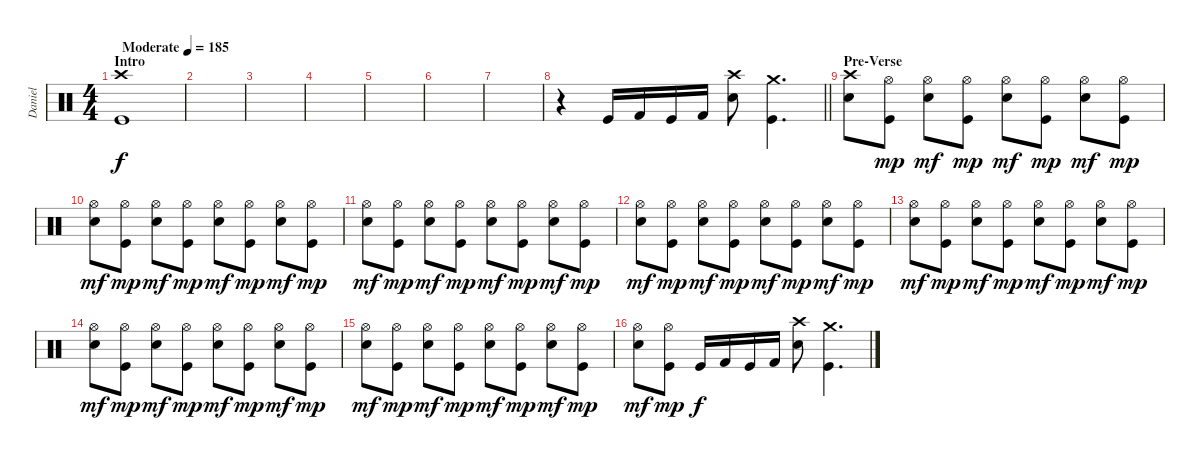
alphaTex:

\track ("Daniel" "Daniel") {instrument percussion}
\staff {score}
\articulation defaults
\ts (4 4)
\section ("" "Intro")
\tempo (185 "Moderate")
\clef neutral
\ks c
("Kick (hit)" "Crash high (hit)").1{dy f} |
|
|
|
|
|
|
\barLineRight lightlight
r.4 "Kick (hit)".16 "Kick (hit) 2".16 "Kick (hit)".16 "Kick (hit) 2".16 ("Electric Snare (hit)" "Crash high (hit)").8 ("Kick (hit)" "Crash medium (hit)").4{d} |
\section ("" "Pre-Verse")
("Electric Snare (hit)" "Crash high (hit)").8 ("Kick (hit)" "Hi-Hat (open)").8{dy mp} ("Electric Snare (hit)" "Hi-Hat (open)").8{dy mf} ("Kick (hit)" "Hi-Hat (open)").8{dy mp} ("Electric Snare (hit)" "Hi-Hat (open)").8{dy mf} ("Kick (hit)" "Hi-Hat (open)").8{dy mp} ("Electric Snare (hit)" "Hi-Hat (open)").8{dy mf} ("Kick (hit)" "Hi-Hat (open)").8{dy mp} |
("Electric Snare (hit)" "Hi-Hat (open)").8{dy mf} ("Kick (hit)" "Hi-Hat (open)").8{dy mp} ("Electric Snare (hit)" "Hi-Hat (open)").8{dy mf} ("Kick (hit)" "Hi-Hat (open)").8{dy mp} ("Electric Snare (hit)" "Hi-Hat (open)").8{dy mf} ("Kick (hit)" "Hi-Hat (open)").8{dy mp} ("Electric Snare (hit)" "Hi-Hat (open)").8{dy mf} ("Kick (hit)" "Hi-Hat (open)").8{dy mp} |
("Electric Snare (hit)" "Hi-Hat (open)").8{dy mf} ("Kick (hit)" "Hi-Hat (open)").8{dy mp} ("Electric Snare (hit)" "Hi-Hat (open)").8{dy mf} ("Kick (hit)" "Hi-Hat (open)").8{dy mp} ("Electric Snare (hit)" "Hi-Hat (open)").8{dy mf} ("Kick (hit)" "Hi-Hat (open)").8{dy mp} ("Electric Snare (hit)" "Hi-Hat (open)").8{dy mf} ("Kick (hit)" "Hi-Hat (open)").8{dy mp} |
("Electric Snare (hit)" "Hi-Hat (open)").8{dy mf} ("Kick (hit)" "Hi-Hat (open)").8{dy mp} ("Electric Snare (hit)" "Hi-Hat (open)").8{dy mf} ("Kick (hit)" "Hi-Hat (open)").8{dy mp} ("Electric Snare (hit)" "Hi-Hat (open)").8{dy mf} ("Kick (hit)" "Hi-Hat (open)").8{dy mp} ("Electric Snare (hit)" "Hi-Hat (open)").8{dy mf} ("Kick (hit)" "Hi-Hat (open)").8{dy mp} |
("Electric Snare (hit)" "Hi-Hat (open)").8{dy mf} ("Kick (hit)" "Hi-Hat (open)").8{dy mp} ("Electric Snare (hit)" "Hi-Hat (open)").8{dy mf} ("Kick (hit)" "Hi-Hat (open)").8{dy mp} ("Electric Snare (hit)" "Hi-Hat (open)").8{dy mf} ("Kick (hit)" "Hi-Hat (open)").8{dy mp} ("Electric Snare (hit)" "Hi-Hat (open)").8{dy mf} ("Kick (hit)" "Hi-Hat (open)").8{dy mp} |
("Electric Snare (hit)" "Hi-Hat (open)").8{dy mf} ("Kick (hit)" "Hi-Hat (open)").8{dy mp} ("Electric Snare (hit)" "Hi-Hat (open)").8{dy mf} ("Kick (hit)" "Hi-Hat (open)").8{dy mp} ("Electric Snare (hit)" "Hi-Hat (open)").8{dy mf} ("Kick (hit)" "Hi-Hat (open)").8{dy mp} ("Electric Snare (hit)" "Hi-Hat (open)").8{dy mf} ("Kick (hit)" "Hi-Hat (open)").8{dy mp} |
("Electric Snare (hit)" "Hi-Hat (open)").8{dy mf} ("Kick (hit)" "Hi-Hat (open)").8{dy mp} ("Electric Snare (hit)" "Hi-Hat (open)").8{dy mf} ("Kick (hit)" "Hi-Hat (open)").8{dy mp} ("Electric Snare (hit)" "Hi-Hat (open)").8{dy mf} ("Kick (hit)" "Hi-Hat (open)").8{dy mp} ("Electric Snare (hit)" "Hi-Hat (open)").8{dy mf} ("Kick (hit)" "Hi-Hat (open)").8{dy mp} |
("Electric Snare (hit)" "Hi-Hat (open)").8{dy mf} ("Kick (hit)" "Hi-Hat (open)").8{dy mp} "Kick (hit)".16{dy f} "Kick (hit) 2".16 "Kick (hit)".16 "Kick (hit) 2".16 ("Electric Snare (hit)" "Crash high (hit)").8 ("Kick (hit)" "Crash medium (hit)").4{d}
